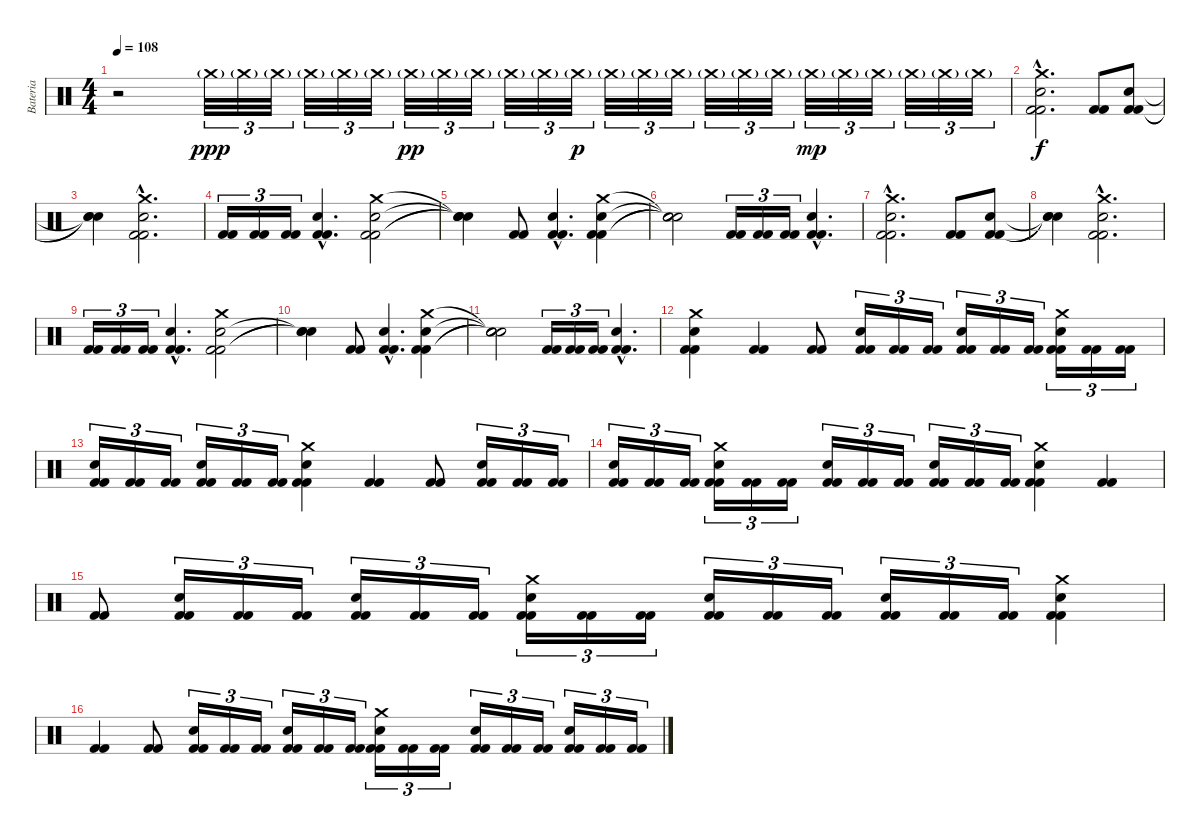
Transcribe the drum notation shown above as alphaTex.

\track ("Bateria" "Bateria") {instrument percussion}
\staff {score}
\articulation defaults
\ts (4 4)
\tempo 108
\clef neutral
\ks c
r.2{dy ppp} "Crash medium (hit)"{g}.32{tu (3 2)} "Crash medium (hit)"{g}.32{tu (3 2)} "Crash medium (hit)"{g}.32{tu (3 2)} "Crash medium (hit)"{g}.32{tu (3 2)} "Crash medium (hit)"{g}.32{tu (3 2)} "Crash medium (hit)"{g}.32{tu (3 2)} "Crash medium (hit)"{g}.32{tu (3 2) dy pp} "Crash medium (hit)"{g}.32{tu (3 2)} "Crash medium (hit)"{g}.32{tu (3 2)} "Crash medium (hit)"{g}.32{tu (3 2)} "Crash medium (hit)"{g}.32{tu (3 2)} "Crash medium (hit)"{g}.32{tu (3 2) dy p} "Crash medium (hit)"{g}.32{tu (3 2)} "Crash medium (hit)"{g}.32{tu (3 2)} "Crash medium (hit)"{g}.32{tu (3 2)} "Crash medium (hit)"{g}.32{tu (3 2)} "Crash medium (hit)"{g}.32{tu (3 2)} "Crash medium (hit)"{g}.32{tu (3 2)} "Crash medium (hit)"{g}.32{tu (3 2) dy mp} "Crash medium (hit)"{g}.32{tu (3 2)} "Crash medium (hit)"{g}.32{tu (3 2)} "Crash medium (hit)"{g}.32{tu (3 2)} "Crash medium (hit)"{g}.32{tu (3 2)} "Crash medium (hit)"{g}.32{tu (3 2)} |
("Kick (hit) 2"{hac} "Kick (hit) 2"{hac} "Snare (hit) 2"{hac} "Crash medium (hit)"{hac}).2{d dy f} ("Kick (hit) 2" "Kick (hit) 2").8 ("Kick (hit) 2" "Kick (hit) 2" "Snare (hit) 2").8 |
("Snare (hit)"{t} "Snare (hit)"{t} "Snare (hit)"{t}).4 ("Kick (hit) 2"{hac} "Kick (hit) 2"{hac} "Snare (hit) 2"{hac} "Crash medium (hit)"{hac}).2{d} |
("Kick (hit) 2" "Kick (hit) 2").16{tu (3 2)} ("Kick (hit) 2" "Kick (hit) 2").16{tu (3 2)} ("Kick (hit) 2" "Kick (hit) 2").16{tu (3 2)} ("Kick (hit) 2"{hac} "Kick (hit) 2"{hac} "Snare (hit) 2"{hac}).4{d} ("Kick (hit) 2" "Kick (hit) 2" "Snare (hit) 2" "Crash medium (hit)").2 |
("Snare (hit)"{t} "Snare (hit)"{t} "Snare (hit)"{t} "Snare (hit)"{t}).4 ("Kick (hit) 2" "Kick (hit) 2").8 ("Kick (hit) 2"{hac} "Kick (hit) 2"{hac} "Snare (hit) 2"{hac}).4{d} ("Kick (hit) 2" "Kick (hit) 2" "Snare (hit) 2" "Crash medium (hit)").4 |
("Snare (hit)"{t} "Snare (hit)"{t} "Snare (hit)"{t} "Snare (hit)"{t}).2 ("Kick (hit) 2" "Kick (hit) 2").16{tu (3 2)} ("Kick (hit) 2" "Kick (hit) 2").16{tu (3 2)} ("Kick (hit) 2" "Kick (hit) 2").16{tu (3 2)} ("Kick (hit) 2"{hac} "Kick (hit) 2"{hac} "Snare (hit) 2"{hac}).4{d} |
("Kick (hit) 2"{hac} "Kick (hit) 2"{hac} "Snare (hit) 2"{hac} "Crash medium (hit)"{hac}).2{d} ("Kick (hit) 2" "Kick (hit) 2").8 ("Kick (hit) 2" "Kick (hit) 2" "Snare (hit) 2").8 |
("Snare (hit)"{t} "Snare (hit)"{t} "Snare (hit)"{t}).4 ("Kick (hit) 2"{hac} "Kick (hit) 2"{hac} "Snare (hit) 2"{hac} "Crash medium (hit)"{hac}).2{d} |
("Kick (hit) 2" "Kick (hit) 2").16{tu (3 2)} ("Kick (hit) 2" "Kick (hit) 2").16{tu (3 2)} ("Kick (hit) 2" "Kick (hit) 2").16{tu (3 2)} ("Kick (hit) 2"{hac} "Kick (hit) 2"{hac} "Snare (hit) 2"{hac}).4{d} ("Kick (hit) 2" "Kick (hit) 2" "Snare (hit) 2" "Crash medium (hit)").2 |
("Snare (hit)"{t} "Snare (hit)"{t} "Snare (hit)"{t}).4 ("Kick (hit) 2" "Kick (hit) 2").8 ("Kick (hit) 2"{hac} "Kick (hit) 2"{hac} "Snare (hit) 2"{hac}).4{d} ("Kick (hit) 2" "Kick (hit) 2" "Snare (hit) 2" "Crash medium (hit)").4 |
("Snare (hit)"{t} "Snare (hit)"{t} "Snare (hit)"{t} "Snare (hit)"{t}).2 ("Kick (hit) 2" "Kick (hit) 2").16{tu (3 2)} ("Kick (hit) 2" "Kick (hit) 2").16{tu (3 2)} ("Kick (hit) 2" "Kick (hit) 2").16{tu (3 2)} ("Kick (hit) 2"{hac} "Kick (hit) 2"{hac} "Snare (hit) 2"{hac}).4{d} |
("Kick (hit) 2" "Kick (hit) 2" "Snare (hit) 2" "Crash medium (hit)").4 ("Kick (hit) 2" "Kick (hit) 2").4 ("Kick (hit) 2" "Kick (hit) 2").8 ("Kick (hit) 2" "Kick (hit) 2" "Snare (hit) 2").16{tu (3 2)} ("Kick (hit) 2" "Kick (hit) 2").16{tu (3 2)} ("Kick (hit) 2" "Kick (hit) 2").16{tu (3 2)} ("Kick (hit) 2" "Kick (hit) 2" "Snare (hit) 2").16{tu (3 2)} ("Kick (hit) 2" "Kick (hit) 2").16{tu (3 2)} ("Kick (hit) 2" "Kick (hit) 2").16{tu (3 2)} ("Kick (hit) 2" "Kick (hit) 2" "Snare (hit) 2" "Crash medium (hit)").16{tu (3 2)} ("Kick (hit) 2" "Kick (hit) 2").16{tu (3 2)} ("Kick (hit) 2" "Kick (hit) 2").16{tu (3 2)} |
("Kick (hit) 2" "Kick (hit) 2" "Snare (hit) 2").16{tu (3 2)} ("Kick (hit) 2" "Kick (hit) 2").16{tu (3 2)} ("Kick (hit) 2" "Kick (hit) 2").16{tu (3 2)} ("Kick (hit) 2" "Kick (hit) 2" "Snare (hit) 2").16{tu (3 2)} ("Kick (hit) 2" "Kick (hit) 2").16{tu (3 2)} ("Kick (hit) 2" "Kick (hit) 2").16{tu (3 2)} ("Kick (hit) 2" "Kick (hit) 2" "Snare (hit) 2" "Crash medium (hit)").4 ("Kick (hit) 2" "Kick (hit) 2").4 ("Kick (hit) 2" "Kick (hit) 2").8 ("Kick (hit) 2" "Kick (hit) 2" "Snare (hit) 2").16{tu (3 2)} ("Kick (hit) 2" "Kick (hit) 2").16{tu (3 2)} ("Kick (hit) 2" "Kick (hit) 2").16{tu (3 2)} |
("Kick (hit) 2" "Kick (hit) 2" "Snare (hit) 2").16{tu (3 2)} ("Kick (hit) 2" "Kick (hit) 2").16{tu (3 2)} ("Kick (hit) 2" "Kick (hit) 2").16{tu (3 2)} ("Kick (hit) 2" "Kick (hit) 2" "Snare (hit) 2" "Crash medium (hit)").16{tu (3 2)} ("Kick (hit) 2" "Kick (hit) 2").16{tu (3 2)} ("Kick (hit) 2" "Kick (hit) 2").16{tu (3 2)} ("Kick (hit) 2" "Kick (hit) 2" "Snare (hit) 2").16{tu (3 2)} ("Kick (hit) 2" "Kick (hit) 2").16{tu (3 2)} ("Kick (hit) 2" "Kick (hit) 2").16{tu (3 2)} ("Kick (hit) 2" "Kick (hit) 2" "Snare (hit) 2").16{tu (3 2)} ("Kick (hit) 2" "Kick (hit) 2").16{tu (3 2)} ("Kick (hit) 2" "Kick (hit) 2").16{tu (3 2)} ("Kick (hit) 2" "Kick (hit) 2" "Snare (hit) 2" "Crash medium (hit)").4 ("Kick (hit) 2" "Kick (hit) 2").4 |
("Kick (hit) 2" "Kick (hit) 2").8 ("Kick (hit) 2" "Kick (hit) 2" "Snare (hit) 2").16{tu (3 2)} ("Kick (hit) 2" "Kick (hit) 2").16{tu (3 2)} ("Kick (hit) 2" "Kick (hit) 2").16{tu (3 2)} ("Kick (hit) 2" "Kick (hit) 2" "Snare (hit) 2").16{tu (3 2)} ("Kick (hit) 2" "Kick (hit) 2").16{tu (3 2)} ("Kick (hit) 2" "Kick (hit) 2").16{tu (3 2)} ("Kick (hit) 2" "Kick (hit) 2" "Snare (hit) 2" "Crash medium (hit)").16{tu (3 2)} ("Kick (hit) 2" "Kick (hit) 2").16{tu (3 2)} ("Kick (hit) 2" "Kick (hit) 2").16{tu (3 2)} ("Kick (hit) 2" "Kick (hit) 2" "Snare (hit) 2").16{tu (3 2)} ("Kick (hit) 2" "Kick (hit) 2").16{tu (3 2)} ("Kick (hit) 2" "Kick (hit) 2").16{tu (3 2)} ("Kick (hit) 2" "Kick (hit) 2" "Snare (hit) 2").16{tu (3 2)} ("Kick (hit) 2" "Kick (hit) 2").16{tu (3 2)} ("Kick (hit) 2" "Kick (hit) 2").16{tu (3 2)} ("Kick (hit) 2" "Kick (hit) 2" "Snare (hit) 2" "Crash medium (hit)").4 |
("Kick (hit) 2" "Kick (hit) 2").4 ("Kick (hit) 2" "Kick (hit) 2").8 ("Kick (hit) 2" "Kick (hit) 2" "Snare (hit) 2").16{tu (3 2)} ("Kick (hit) 2" "Kick (hit) 2").16{tu (3 2)} ("Kick (hit) 2" "Kick (hit) 2").16{tu (3 2)} ("Kick (hit) 2" "Kick (hit) 2" "Snare (hit) 2").16{tu (3 2)} ("Kick (hit) 2" "Kick (hit) 2").16{tu (3 2)} ("Kick (hit) 2" "Kick (hit) 2").16{tu (3 2)} ("Kick (hit) 2" "Kick (hit) 2" "Snare (hit) 2" "Crash medium (hit)").16{tu (3 2)} ("Kick (hit) 2" "Kick (hit) 2").16{tu (3 2)} ("Kick (hit) 2" "Kick (hit) 2").16{tu (3 2)} ("Kick (hit) 2" "Kick (hit) 2" "Snare (hit) 2").16{tu (3 2)} ("Kick (hit) 2" "Kick (hit) 2").16{tu (3 2)} ("Kick (hit) 2" "Kick (hit) 2").16{tu (3 2)} ("Kick (hit) 2" "Kick (hit) 2" "Snare (hit) 2").16{tu (3 2)} ("Kick (hit) 2" "Kick (hit) 2").16{tu (3 2)} ("Kick (hit) 2" "Kick (hit) 2").16{tu (3 2)}
